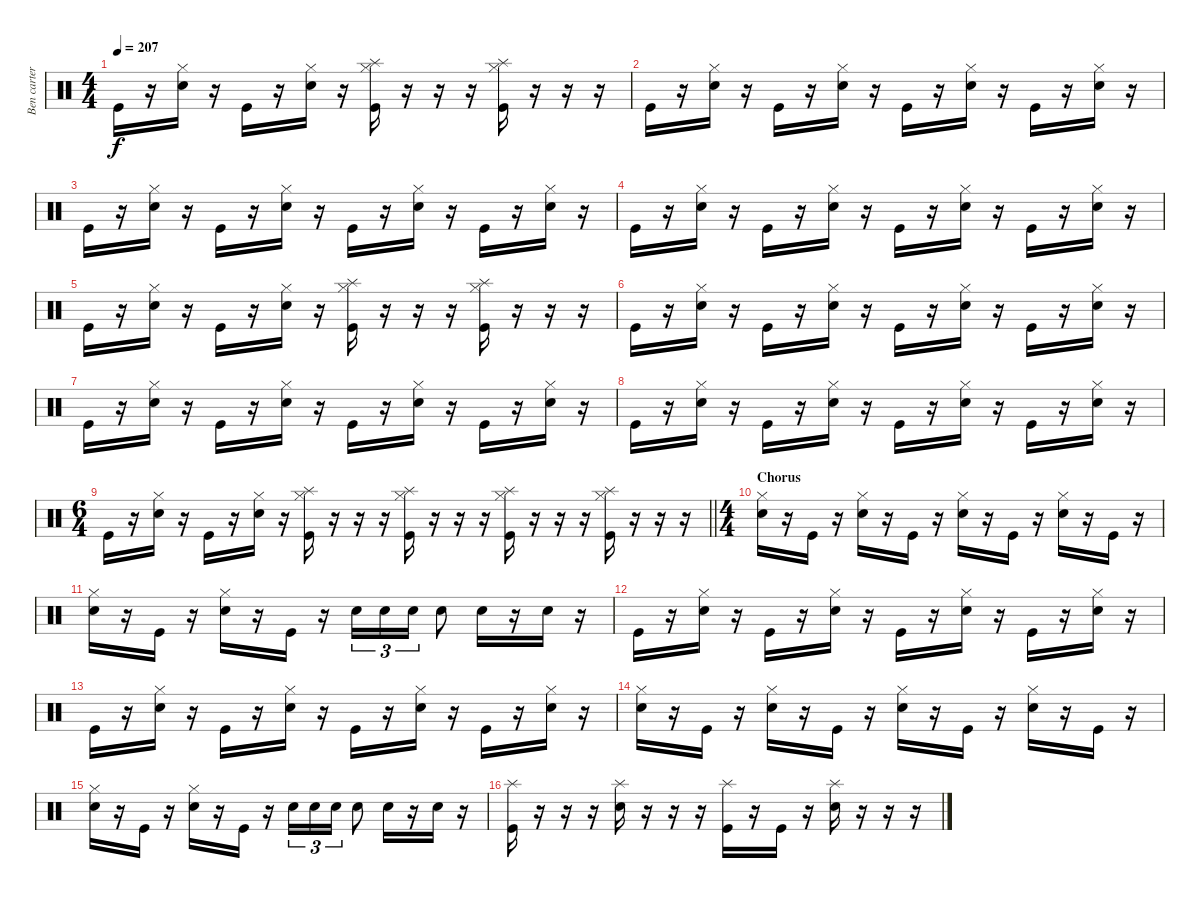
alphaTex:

\track ("Ben carter" "Ben carter") {instrument percussion}
\staff {score}
\articulation defaults
\ts (4 4)
\tempo 207
\clef neutral
\ks c "Kick (hit)".16{dy f}
r.16 ("Hi-Hat (closed)" "Electric Snare (hit)").16 r.16 "Kick (hit)".16 r.16 ("Hi-Hat (closed)" "Electric Snare (hit)").16 r.16 ("Hi-Hat (closed)" "Splash (hit)" "Kick (hit)").16 r.16 r.16 r.16 ("Hi-Hat (closed)" "Splash (hit)" "Kick (hit)").16 r.16 r.16 r.16 |
"Kick (hit)".16 r.16 ("Hi-Hat (closed)" "Electric Snare (hit)").16 r.16 "Kick (hit)".16 r.16 ("Hi-Hat (closed)" "Electric Snare (hit)").16 r.16 "Kick (hit)".16 r.16 ("Hi-Hat (closed)" "Electric Snare (hit)").16 r.16 "Kick (hit)".16 r.16 ("Hi-Hat (closed)" "Electric Snare (hit)").16 r.16 |
"Kick (hit)".16 r.16 ("Hi-Hat (closed)" "Electric Snare (hit)").16 r.16 "Kick (hit)".16 r.16 ("Hi-Hat (closed)" "Electric Snare (hit)").16 r.16 "Kick (hit)".16 r.16 ("Hi-Hat (closed)" "Electric Snare (hit)").16 r.16 "Kick (hit)".16 r.16 ("Hi-Hat (closed)" "Electric Snare (hit)").16 r.16 |
"Kick (hit)".16 r.16 ("Hi-Hat (closed)" "Electric Snare (hit)").16 r.16 "Kick (hit)".16 r.16 ("Hi-Hat (closed)" "Electric Snare (hit)").16 r.16 "Kick (hit)".16 r.16 ("Hi-Hat (closed)" "Electric Snare (hit)").16 r.16 "Kick (hit)".16 r.16 ("Hi-Hat (closed)" "Electric Snare (hit)").16 r.16 |
"Kick (hit)".16 r.16 ("Hi-Hat (closed)" "Electric Snare (hit)").16 r.16 "Kick (hit)".16 r.16 ("Hi-Hat (closed)" "Electric Snare (hit)").16 r.16 ("Hi-Hat (closed)" "Splash (hit)" "Kick (hit)").16 r.16 r.16 r.16 ("Hi-Hat (closed)" "Splash (hit)" "Kick (hit)").16 r.16 r.16 r.16 |
"Kick (hit)".16 r.16 ("Hi-Hat (closed)" "Electric Snare (hit)").16 r.16 "Kick (hit)".16 r.16 ("Hi-Hat (closed)" "Electric Snare (hit)").16 r.16 "Kick (hit)".16 r.16 ("Hi-Hat (closed)" "Electric Snare (hit)").16 r.16 "Kick (hit)".16 r.16 ("Hi-Hat (closed)" "Electric Snare (hit)").16 r.16 |
"Kick (hit)".16 r.16 ("Hi-Hat (closed)" "Electric Snare (hit)").16 r.16 "Kick (hit)".16 r.16 ("Hi-Hat (closed)" "Electric Snare (hit)").16 r.16 "Kick (hit)".16 r.16 ("Hi-Hat (closed)" "Electric Snare (hit)").16 r.16 "Kick (hit)".16 r.16 ("Hi-Hat (closed)" "Electric Snare (hit)").16 r.16 |
"Kick (hit)".16 r.16 ("Hi-Hat (closed)" "Electric Snare (hit)").16 r.16 "Kick (hit)".16 r.16 ("Hi-Hat (closed)" "Electric Snare (hit)").16 r.16 "Kick (hit)".16 r.16 ("Hi-Hat (closed)" "Electric Snare (hit)").16 r.16 "Kick (hit)".16 r.16 ("Hi-Hat (closed)" "Electric Snare (hit)").16 r.16 |
\ts (6 4)
\barLineRight lightlight "Kick (hit)".16
r.16 ("Hi-Hat (closed)" "Electric Snare (hit)").16 r.16 "Kick (hit)".16 r.16 ("Hi-Hat (closed)" "Electric Snare (hit)").16 r.16 ("Hi-Hat (closed)" "Splash (hit)" "Kick (hit)").16 r.16 r.16 r.16 ("Hi-Hat (closed)" "Splash (hit)" "Kick (hit)").16 r.16 r.16 r.16 ("Hi-Hat (closed)" "Splash (hit)" "Kick (hit)").16 r.16 r.16 r.16 ("Hi-Hat (closed)" "Splash (hit)" "Kick (hit)").16 r.16 r.16 r.16 |
\ts (4 4)
\section ("" "Chorus")
("Hi-Hat (closed)" "Electric Snare (hit)").16 r.16 "Kick (hit)".16 r.16 ("Hi-Hat (closed)" "Electric Snare (hit)").16 r.16 "Kick (hit)".16 r.16 ("Hi-Hat (closed)" "Electric Snare (hit)").16 r.16 "Kick (hit)".16 r.16 ("Hi-Hat (closed)" "Electric Snare (hit)").16 r.16 "Kick (hit)".16 r.16 |
("Hi-Hat (closed)" "Electric Snare (hit)").16 r.16 "Kick (hit)".16 r.16 ("Hi-Hat (closed)" "Electric Snare (hit)").16 r.16 "Kick (hit)".16 r.16 "Snare (hit) 2".16{tu (3 2)} "Snare (hit) 2".16{tu (3 2)} "Snare (hit) 2".16{tu (3 2)} "Snare (hit) 2".8 "Snare (hit) 2".16 r.16 "Snare (hit) 2".16 r.16 |
"Kick (hit)".16 r.16 ("Hi-Hat (closed)" "Electric Snare (hit)").16 r.16 "Kick (hit)".16 r.16 ("Hi-Hat (closed)" "Electric Snare (hit)").16 r.16 "Kick (hit)".16 r.16 ("Hi-Hat (closed)" "Electric Snare (hit)").16 r.16 "Kick (hit)".16 r.16 ("Hi-Hat (closed)" "Electric Snare (hit)").16 r.16 |
"Kick (hit)".16 r.16 ("Hi-Hat (closed)" "Electric Snare (hit)").16 r.16 "Kick (hit)".16 r.16 ("Hi-Hat (closed)" "Electric Snare (hit)").16 r.16 "Kick (hit)".16 r.16 ("Hi-Hat (closed)" "Electric Snare (hit)").16 r.16 "Kick (hit)".16 r.16 ("Hi-Hat (closed)" "Electric Snare (hit)").16 r.16 |
("Hi-Hat (closed)" "Electric Snare (hit)").16 r.16 "Kick (hit)".16 r.16 ("Hi-Hat (closed)" "Electric Snare (hit)").16 r.16 "Kick (hit)".16 r.16 ("Hi-Hat (closed)" "Electric Snare (hit)").16 r.16 "Kick (hit)".16 r.16 ("Hi-Hat (closed)" "Electric Snare (hit)").16 r.16 "Kick (hit)".16 r.16 |
("Hi-Hat (closed)" "Electric Snare (hit)").16 r.16 "Kick (hit)".16 r.16 ("Hi-Hat (closed)" "Electric Snare (hit)").16 r.16 "Kick (hit)".16 r.16 "Snare (hit) 2".16{tu (3 2)} "Snare (hit) 2".16{tu (3 2)} "Snare (hit) 2".16{tu (3 2)} "Snare (hit) 2".8 "Snare (hit) 2".16 r.16 "Snare (hit) 2".16 r.16 |
("Splash (hit)" "Kick (hit)").16 r.16 r.16 r.16 ("Splash (hit)" "Snare (hit) 2").16 r.16 r.16 r.16 ("Splash (hit)" "Kick (hit)").16 r.16 "Kick (hit)".16 r.16 ("Splash (hit)" "Snare (hit) 2").16 r.16 r.16 r.16
